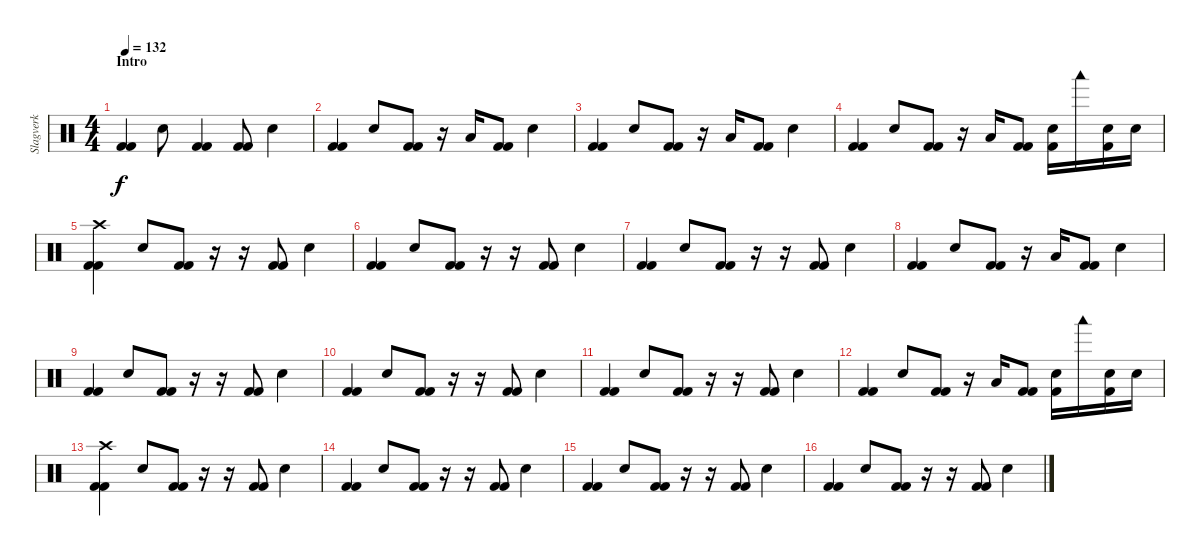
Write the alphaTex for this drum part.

\track ("Slagverk" "Slagverk") {instrument percussion}
\staff {score}
\articulation defaults
\ts (4 4)
\section ("" "Intro")
\tempo 132
\clef neutral
\ks c
("Kick (hit) 2" "Kick (hit) 2").4{dy f} "Electric Snare (hit)".8 ("Kick (hit) 2" "Kick (hit) 2").4 ("Kick (hit) 2" "Kick (hit) 2").8 "Electric Snare (hit)".4 |
("Kick (hit) 2" "Kick (hit) 2").4 "Electric Snare (hit)".8 ("Kick (hit) 2" "Kick (hit) 2").8 r.16 "Low Tom (hit)".16 ("Kick (hit) 2" "Kick (hit) 2").8 "Electric Snare (hit)".4 |
("Kick (hit) 2" "Kick (hit) 2").4 "Electric Snare (hit)".8 ("Kick (hit) 2" "Kick (hit) 2").8 r.16 "Low Tom (hit)".16 ("Kick (hit) 2" "Kick (hit) 2").8 "Electric Snare (hit)".4 |
("Kick (hit) 2" "Kick (hit) 2").4 "Electric Snare (hit)".8 ("Kick (hit) 2" "Kick (hit) 2").8 r.16 "Low Tom (hit)".16 ("Kick (hit) 2" "Kick (hit) 2").8 ("Electric Snare (hit)" "Kick (hit) 2").16 "Woodblock low (hit)".16 ("Electric Snare (hit)" "Kick (hit) 2").16 "Electric Snare (hit)".16 |
("Kick (hit) 2" "Kick (hit) 2" "Crash high (hit)").4 "Electric Snare (hit)".8 ("Kick (hit) 2" "Kick (hit) 2").8 r.16 r.16 ("Kick (hit) 2" "Kick (hit) 2").8 "Electric Snare (hit)".4 |
("Kick (hit) 2" "Kick (hit) 2").4 "Electric Snare (hit)".8 ("Kick (hit) 2" "Kick (hit) 2").8 r.16 r.16 ("Kick (hit) 2" "Kick (hit) 2").8 "Electric Snare (hit)".4 |
("Kick (hit) 2" "Kick (hit) 2").4 "Electric Snare (hit)".8 ("Kick (hit) 2" "Kick (hit) 2").8 r.16 r.16 ("Kick (hit) 2" "Kick (hit) 2").8 "Electric Snare (hit)".4 |
("Kick (hit) 2" "Kick (hit) 2").4 "Electric Snare (hit)".8 ("Kick (hit) 2" "Kick (hit) 2").8 r.16 "Low Tom (hit)".16 ("Kick (hit) 2" "Kick (hit) 2").8 "Electric Snare (hit)".4 |
("Kick (hit) 2" "Kick (hit) 2").4 "Electric Snare (hit)".8 ("Kick (hit) 2" "Kick (hit) 2").8 r.16 r.16 ("Kick (hit) 2" "Kick (hit) 2").8 "Electric Snare (hit)".4 |
("Kick (hit) 2" "Kick (hit) 2").4 "Electric Snare (hit)".8 ("Kick (hit) 2" "Kick (hit) 2").8 r.16 r.16 ("Kick (hit) 2" "Kick (hit) 2").8 "Electric Snare (hit)".4 |
("Kick (hit) 2" "Kick (hit) 2").4 "Electric Snare (hit)".8 ("Kick (hit) 2" "Kick (hit) 2").8 r.16 r.16 ("Kick (hit) 2" "Kick (hit) 2").8 "Electric Snare (hit)".4 |
("Kick (hit) 2" "Kick (hit) 2").4 "Electric Snare (hit)".8 ("Kick (hit) 2" "Kick (hit) 2").8 r.16 "Low Tom (hit)".16 ("Kick (hit) 2" "Kick (hit) 2").8 ("Electric Snare (hit)" "Kick (hit) 2").16 "Woodblock low (hit)".16 ("Electric Snare (hit)" "Kick (hit) 2").16 "Electric Snare (hit)".16 |
("Kick (hit) 2" "Kick (hit) 2" "Crash high (hit)").4 "Electric Snare (hit)".8 ("Kick (hit) 2" "Kick (hit) 2").8 r.16 r.16 ("Kick (hit) 2" "Kick (hit) 2").8 "Electric Snare (hit)".4 |
("Kick (hit) 2" "Kick (hit) 2").4 "Electric Snare (hit)".8 ("Kick (hit) 2" "Kick (hit) 2").8 r.16 r.16 ("Kick (hit) 2" "Kick (hit) 2").8 "Electric Snare (hit)".4 |
("Kick (hit) 2" "Kick (hit) 2").4 "Electric Snare (hit)".8 ("Kick (hit) 2" "Kick (hit) 2").8 r.16 r.16 ("Kick (hit) 2" "Kick (hit) 2").8 "Electric Snare (hit)".4 |
("Kick (hit) 2" "Kick (hit) 2").4 "Electric Snare (hit)".8 ("Kick (hit) 2" "Kick (hit) 2").8 r.16 r.16 ("Kick (hit) 2" "Kick (hit) 2").8 "Electric Snare (hit)".4
